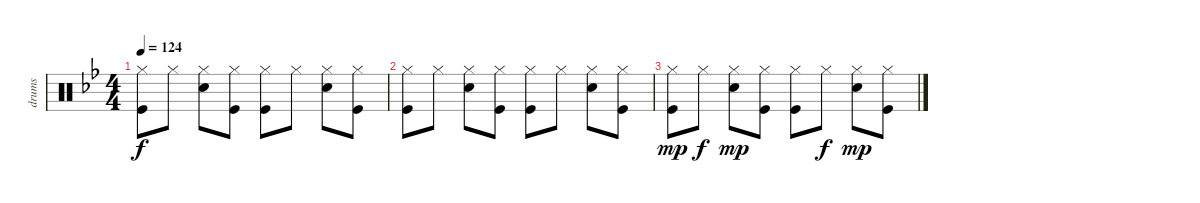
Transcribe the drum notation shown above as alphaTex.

\track ("drums" "drums") {instrument percussion}
\staff {score}
\articulation defaults
\ts (4 4)
\tempo 124
\clef neutral
\ks bb
("Hi-Hat (closed)" "Kick (hit)").8{dy f} "Hi-Hat (closed)".8 ("Electric Snare (hit)" "Hi-Hat (closed)").8 ("Hi-Hat (closed)" "Kick (hit)").8 ("Hi-Hat (closed)" "Kick (hit)").8 "Hi-Hat (closed)".8 ("Electric Snare (hit)" "Hi-Hat (closed)").8 ("Hi-Hat (closed)" "Kick (hit)").8 |
("Hi-Hat (closed)" "Kick (hit)").8 "Hi-Hat (closed)".8 ("Electric Snare (hit)" "Hi-Hat (closed)").8 ("Hi-Hat (closed)" "Kick (hit)").8 ("Hi-Hat (closed)" "Kick (hit)").8 "Hi-Hat (closed)".8 ("Electric Snare (hit)" "Hi-Hat (closed)").8 ("Hi-Hat (closed)" "Kick (hit)").8 |
("Hi-Hat (closed)" "Kick (hit)").8{dy mp} "Hi-Hat (closed)".8{dy f} ("Electric Snare (hit)" "Hi-Hat (closed)").8{dy mp} ("Hi-Hat (closed)" "Kick (hit)").8 ("Hi-Hat (closed)" "Kick (hit)").8 "Hi-Hat (closed)".8{dy f} ("Electric Snare (hit)" "Hi-Hat (closed)").8{dy mp} ("Hi-Hat (closed)" "Kick (hit)").8
